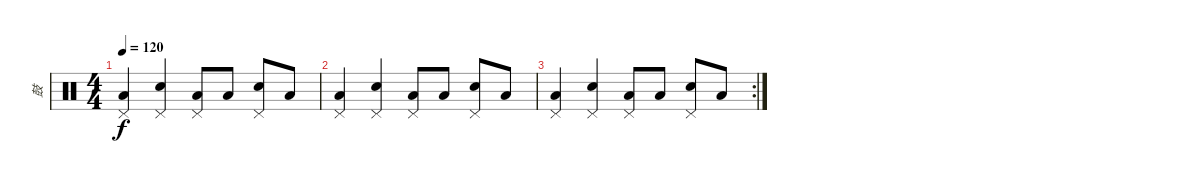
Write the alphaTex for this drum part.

\track ("鼓" "鼓") {instrument percussion}
\staff {score}
\articulation defaults
\ts (4 4)
\tempo 120
\clef neutral
\ks c
("Pedal Hi-Hat (hit)" "Low Floor Tom (hit)").4{dy f} ("Pedal Hi-Hat (hit)" "Snare (hit) 2").4 ("Pedal Hi-Hat (hit)" "Low Floor Tom (hit)").8 "Low Floor Tom (hit)".8 ("Pedal Hi-Hat (hit)" "Snare (hit) 2").8 "Low Floor Tom (hit)".8 |
("Pedal Hi-Hat (hit)" "Low Floor Tom (hit)").4 ("Pedal Hi-Hat (hit)" "Snare (hit) 2").4 ("Pedal Hi-Hat (hit)" "Low Floor Tom (hit)").8 "Low Floor Tom (hit)".8 ("Pedal Hi-Hat (hit)" "Snare (hit) 2").8 "Low Floor Tom (hit)".8 |
\rc 2
("Pedal Hi-Hat (hit)" "Low Floor Tom (hit)").4 ("Pedal Hi-Hat (hit)" "Snare (hit) 2").4 ("Pedal Hi-Hat (hit)" "Low Floor Tom (hit)").8 "Low Floor Tom (hit)".8 ("Pedal Hi-Hat (hit)" "Snare (hit) 2").8 "Low Floor Tom (hit)".8
